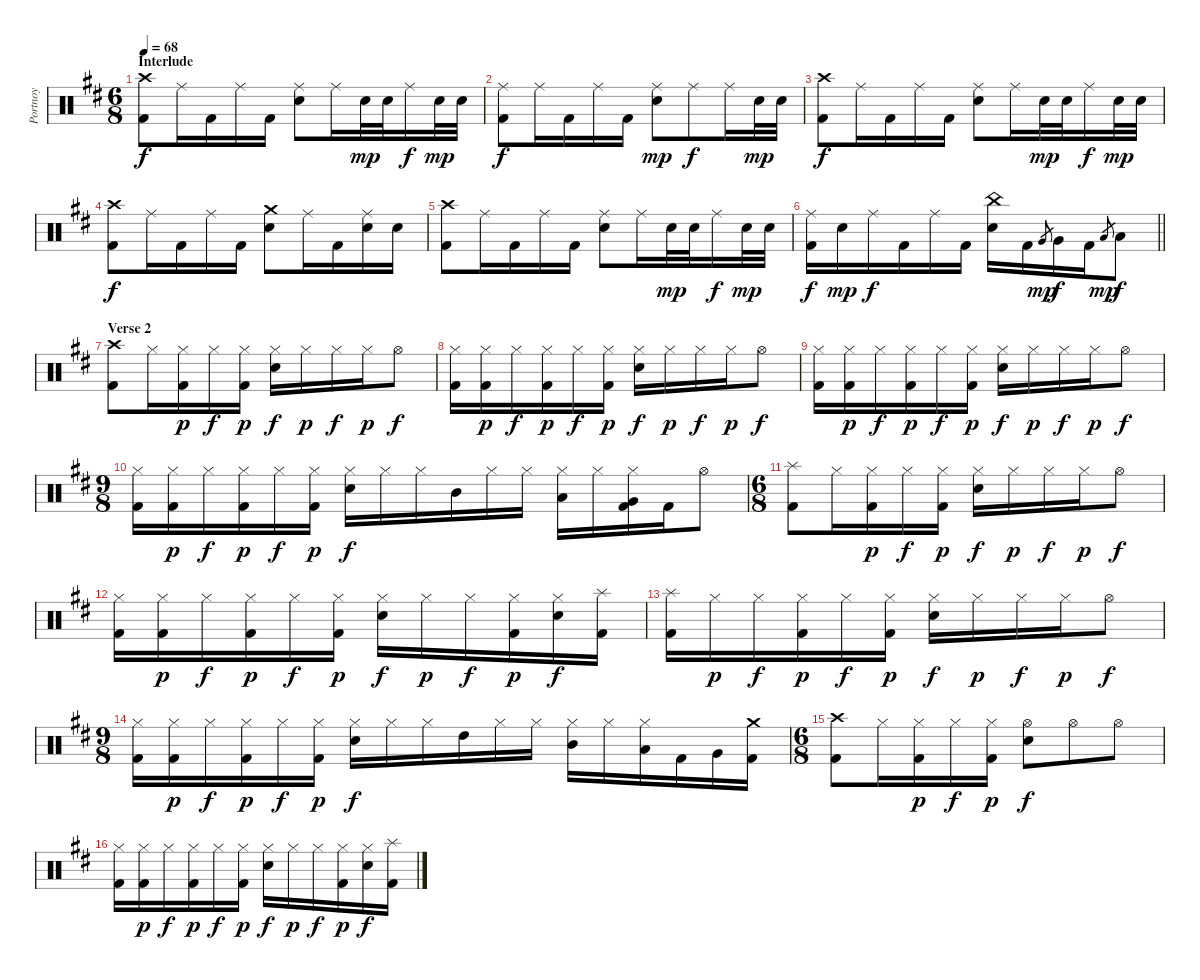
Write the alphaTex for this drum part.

\track ("Portnoy" "Portnoy") {instrument percussion}
\staff {score}
\articulation defaults
\ts (6 8)
\section ("" "Interlude")
\tempo 68
\clef neutral
\ks d
("Crash high (hit)" "Kick (hit) 2").8{dy f} "Ride (middle)".16 "Kick (hit) 2".16 "Ride (middle)".16 "Kick (hit) 2".16 ("Ride (middle)" "Snare (hit) 2").8 "Ride (middle)".16 "Snare (hit) 2".32{dy mp} "Snare (hit) 2".32 "Ride (middle)".16{dy f} "Snare (hit) 2".32{dy mp} "Snare (hit) 2".32 |
("Ride (middle)" "Kick (hit) 2").8{dy f} "Ride (middle)".16 "Kick (hit) 2".16 "Ride (middle)".16 "Kick (hit) 2".16 ("Snare (hit) 2" "Ride (middle)").8{dy mp} "Ride (middle)".8{dy f} "Ride (middle)".16 "Snare (hit) 2".32{dy mp} "Snare (hit) 2".32 |
("Crash high (hit)" "Kick (hit) 2").8{dy f} "Ride (middle)".16 "Kick (hit) 2".16 "Ride (middle)".16 "Kick (hit) 2".16 ("Ride (middle)" "Snare (hit) 2").8 "Ride (middle)".16 "Snare (hit) 2".32{dy mp} "Snare (hit) 2".32 "Ride (middle)".16{dy f} "Snare (hit) 2".32{dy mp} "Snare (hit) 2".32 |
("Crash high (hit)" "Kick (hit) 2").8{dy f} "Ride (middle)".16 "Kick (hit) 2".16 "Ride (middle)".16 "Kick (hit) 2".16 ("Snare (hit) 2" "Crash medium (hit)").8 "Ride (middle)".16 "Kick (hit) 2".16 ("Ride (middle)" "Snare (hit) 2").16 "Snare (hit) 2".16 |
("Crash high (hit)" "Kick (hit) 2").8 "Ride (middle)".16 "Kick (hit) 2".16 "Ride (middle)".16 "Kick (hit) 2".16 ("Ride (middle)" "Snare (hit) 2").8 "Ride (middle)".16 "Snare (hit) 2".32{dy mp} "Snare (hit) 2".32 "Ride (middle)".16{dy f} "Snare (hit) 2".32{dy mp} "Snare (hit) 2".32 |
\barLineRight lightlight
("Ride (middle)" "Kick (hit) 2").16{dy f} "Snare (hit) 2".16{dy mp} "Ride (middle)".16{dy f} "Kick (hit) 2".16 "Ride (middle)".16 "Kick (hit) 2".16 ("China (hit)" "Snare (hit) 2").16 "Kick (hit) 2".16 "Very Low Tom (hit)".8{gr dy mp} "Very Low Tom (hit)".16{dy f} "Kick (hit) 2".16 "Low Floor Tom (hit)".8{gr dy mp} "Low Floor Tom (hit)".8{dy f} |
\section ("" "Verse 2")
("Crash high (hit)" "Kick (hit) 2").8 "Hi-Hat (closed)".16 ("Kick (hit) 2" "Hi-Hat (closed)").16{dy p} "Hi-Hat (closed)".16{dy f} ("Hi-Hat (closed)" "Kick (hit) 2").16{dy p} ("Hi-Hat (closed)" "Snare (hit) 2").16{dy f} "Hi-Hat (closed)".16{dy p} "Hi-Hat (closed)".16{dy f} "Hi-Hat (closed)".16{dy p} "Hi-Hat (open)".8{dy f} |
("Hi-Hat (closed)" "Kick (hit) 2").16 ("Kick (hit) 2" "Hi-Hat (closed)").16{dy p} "Hi-Hat (closed)".16{dy f} ("Kick (hit) 2" "Hi-Hat (closed)").16{dy p} "Hi-Hat (closed)".16{dy f} ("Hi-Hat (closed)" "Kick (hit) 2").16{dy p} ("Hi-Hat (closed)" "Snare (hit) 2").16{dy f} "Hi-Hat (closed)".16{dy p} "Hi-Hat (closed)".16{dy f} "Hi-Hat (closed)".16{dy p} "Hi-Hat (open)".8{dy f} |
("Hi-Hat (closed)" "Kick (hit) 2").16 ("Kick (hit) 2" "Hi-Hat (closed)").16{dy p} "Hi-Hat (closed)".16{dy f} ("Kick (hit) 2" "Hi-Hat (closed)").16{dy p} "Hi-Hat (closed)".16{dy f} ("Hi-Hat (closed)" "Kick (hit) 2").16{dy p} ("Hi-Hat (closed)" "Snare (hit) 2").16{dy f} "Hi-Hat (closed)".16{dy p} "Hi-Hat (closed)".16{dy f} "Hi-Hat (closed)".16{dy p} "Hi-Hat (open)".8{dy f} |
\ts (9 8)
("Hi-Hat (closed)" "Kick (hit) 2").16 ("Kick (hit) 2" "Hi-Hat (closed)").16{dy p} "Hi-Hat (closed)".16{dy f} ("Kick (hit) 2" "Hi-Hat (closed)").16{dy p} "Hi-Hat (closed)".16{dy f} ("Hi-Hat (closed)" "Kick (hit) 2").16{dy p} ("Snare (hit) 2" "Hi-Hat (closed)").16{dy f} "Hi-Hat (closed)".16 "Hi-Hat (closed)".16 "Mid Tom (hit)".16 "Hi-Hat (closed)".16 "Hi-Hat (closed)".16 ("Low Tom (hit)" "Hi-Hat (closed)").16 "Hi-Hat (closed)".16 ("Very Low Tom (hit)" "Hi-Hat (closed)" "Kick (hit) 2").16 "Kick (hit) 2".16 "Hi-Hat (open)".8 |
\ts (6 8)
("Splash (hit)" "Kick (hit) 2").8 "Hi-Hat (closed)".16 ("Kick (hit) 2" "Hi-Hat (closed)").16{dy p} "Hi-Hat (closed)".16{dy f} ("Hi-Hat (closed)" "Kick (hit) 2").16{dy p} ("Hi-Hat (closed)" "Snare (hit) 2").16{dy f} "Hi-Hat (closed)".16{dy p} "Hi-Hat (closed)".16{dy f} "Hi-Hat (closed)".16{dy p} "Hi-Hat (open)".8{dy f} |
("Hi-Hat (closed)" "Kick (hit) 2").16 ("Kick (hit) 2" "Hi-Hat (closed)").16{dy p} "Hi-Hat (closed)".16{dy f} ("Kick (hit) 2" "Hi-Hat (closed)").16{dy p} "Hi-Hat (closed)".16{dy f} ("Hi-Hat (closed)" "Kick (hit) 2").16{dy p} ("Hi-Hat (closed)" "Snare (hit) 2").16{dy f} "Hi-Hat (closed)".16{dy p} "Hi-Hat (closed)".16{dy f} ("Kick (hit) 2" "Hi-Hat (closed)").16{dy p} ("Snare (hit) 2" "Hi-Hat (closed)").16{dy f} ("Splash (hit)" "Kick (hit) 2").16 |
("Splash (hit)" "Kick (hit) 2").16 "Hi-Hat (closed)".16{dy p} "Hi-Hat (closed)".16{dy f} ("Kick (hit) 2" "Hi-Hat (closed)").16{dy p} "Hi-Hat (closed)".16{dy f} ("Hi-Hat (closed)" "Kick (hit) 2").16{dy p} ("Hi-Hat (closed)" "Snare (hit) 2").16{dy f} "Hi-Hat (closed)".16{dy p} "Hi-Hat (closed)".16{dy f} "Hi-Hat (closed)".16{dy p} "Hi-Hat (open)".8{dy f} |
\ts (9 8)
("Hi-Hat (closed)" "Kick (hit) 2").16 ("Kick (hit) 2" "Hi-Hat (closed)").16{dy p} "Hi-Hat (closed)".16{dy f} ("Kick (hit) 2" "Hi-Hat (closed)").16{dy p} "Hi-Hat (closed)".16{dy f} ("Hi-Hat (closed)" "Kick (hit) 2").16{dy p} ("Snare (hit) 2" "Hi-Hat (closed)").16{dy f} "Hi-Hat (closed)".16 "Hi-Hat (closed)".16 "High Tom (hit)".16 "Hi-Hat (closed)".16 "Hi-Hat (closed)".16 ("Mid Tom (hit)" "Hi-Hat (closed)").16 "Hi-Hat (closed)".16 ("Low Tom (hit)" "Hi-Hat (closed)").16 "Kick (hit) 2".16 "Very Low Tom (hit)".16 ("Crash medium (hit)" "Kick (hit) 2").16 |
\ts (6 8)
("Crash high (hit)" "Kick (hit) 2").8 "Hi-Hat (closed)".16 ("Kick (hit) 2" "Hi-Hat (closed)").16{dy p} "Hi-Hat (closed)".16{dy f} ("Hi-Hat (closed)" "Kick (hit) 2").16{dy p} ("Hi-Hat (open)" "Snare (hit) 2").8{dy f} "Hi-Hat (open)".8 "Hi-Hat (open)".8 |
("Hi-Hat (closed)" "Kick (hit) 2").16 ("Kick (hit) 2" "Hi-Hat (closed)").16{dy p} "Hi-Hat (closed)".16{dy f} ("Kick (hit) 2" "Hi-Hat (closed)").16{dy p} "Hi-Hat (closed)".16{dy f} ("Hi-Hat (closed)" "Kick (hit) 2").16{dy p} ("Hi-Hat (closed)" "Snare (hit) 2").16{dy f} "Hi-Hat (closed)".16{dy p} "Hi-Hat (closed)".16{dy f} ("Kick (hit) 2" "Hi-Hat (closed)").16{dy p} ("Snare (hit) 2" "Hi-Hat (closed)").16{dy f} ("Splash (hit)" "Kick (hit) 2").16
